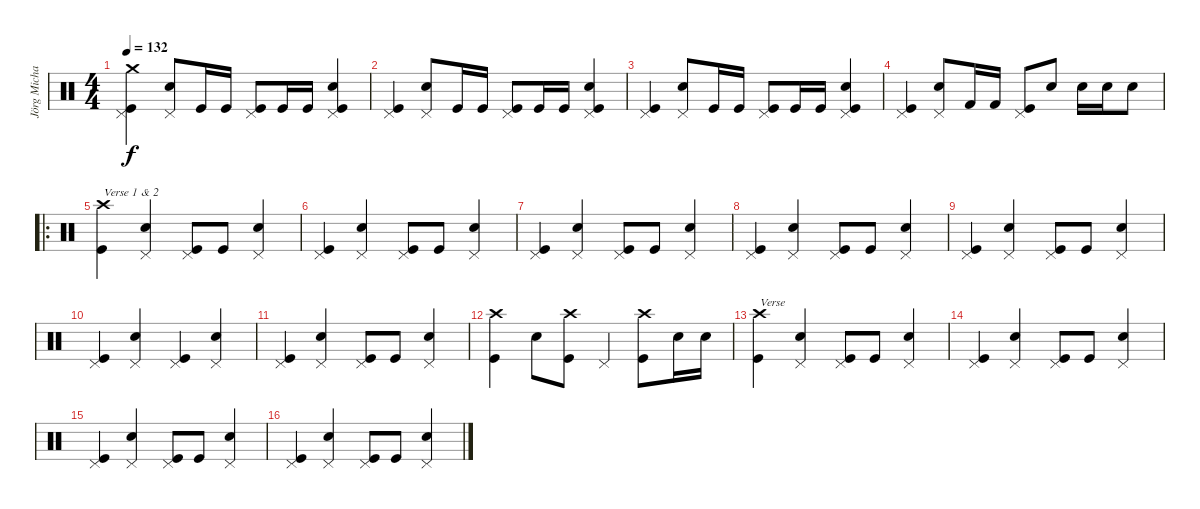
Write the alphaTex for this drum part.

\track ("Jörg Michael (Drums)" "Jörg Micha") {instrument percussion}
\staff {score}
\articulation defaults
\ts (4 4)
\tempo 132
\clef neutral
\ks c
("Pedal Hi-Hat (hit)" "Kick (hit)" "Crash medium (hit)").4{dy f} ("Pedal Hi-Hat (hit)" "Snare (hit) 2").8 "Kick (hit)".16 "Kick (hit)".16 ("Pedal Hi-Hat (hit)" "Kick (hit)").8 "Kick (hit)".16 "Kick (hit)".16 ("Pedal Hi-Hat (hit)" "Kick (hit)" "Snare (hit) 2").4 |
("Pedal Hi-Hat (hit)" "Kick (hit)").4 ("Pedal Hi-Hat (hit)" "Snare (hit) 2").8 "Kick (hit)".16 "Kick (hit)".16 ("Pedal Hi-Hat (hit)" "Kick (hit)").8 "Kick (hit)".16 "Kick (hit)".16 ("Pedal Hi-Hat (hit)" "Kick (hit)" "Snare (hit) 2").4 |
("Pedal Hi-Hat (hit)" "Kick (hit)").4 ("Pedal Hi-Hat (hit)" "Snare (hit) 2").8 "Kick (hit)".16 "Kick (hit)".16 ("Pedal Hi-Hat (hit)" "Kick (hit)").8 "Kick (hit)".16 "Kick (hit)".16 ("Pedal Hi-Hat (hit)" "Kick (hit)" "Snare (hit) 2").4 |
("Pedal Hi-Hat (hit)" "Kick (hit)").4 ("Pedal Hi-Hat (hit)" "Snare (hit) 2").8 "Kick (hit) 2".16 "Kick (hit) 2".16 ("Pedal Hi-Hat (hit)" "Kick (hit)").8 "Snare (hit) 2".8 "Snare (hit) 2".16 "Snare (hit) 2".16 "Snare (hit) 2".8 |
\ro
("Crash high (hit)" "Kick (hit)").4{txt "Verse 1 & 2"} ("Pedal Hi-Hat (hit)" "Snare (hit) 2").4 ("Pedal Hi-Hat (hit)" "Kick (hit)").8 "Kick (hit)".8 ("Pedal Hi-Hat (hit)" "Snare (hit) 2").4 |
("Pedal Hi-Hat (hit)" "Kick (hit)").4 ("Pedal Hi-Hat (hit)" "Snare (hit) 2").4 ("Pedal Hi-Hat (hit)" "Kick (hit)").8 "Kick (hit)".8 ("Pedal Hi-Hat (hit)" "Snare (hit) 2").4 |
("Pedal Hi-Hat (hit)" "Kick (hit)").4 ("Pedal Hi-Hat (hit)" "Snare (hit) 2").4 ("Pedal Hi-Hat (hit)" "Kick (hit)").8 "Kick (hit)".8 ("Pedal Hi-Hat (hit)" "Snare (hit) 2").4 |
("Pedal Hi-Hat (hit)" "Kick (hit)").4 ("Pedal Hi-Hat (hit)" "Snare (hit) 2").4 ("Pedal Hi-Hat (hit)" "Kick (hit)").8 "Kick (hit)".8 ("Pedal Hi-Hat (hit)" "Snare (hit) 2").4 |
("Pedal Hi-Hat (hit)" "Kick (hit)").4 ("Pedal Hi-Hat (hit)" "Snare (hit) 2").4 ("Pedal Hi-Hat (hit)" "Kick (hit)").8 "Kick (hit)".8 ("Pedal Hi-Hat (hit)" "Snare (hit) 2").4 |
("Pedal Hi-Hat (hit)" "Kick (hit)").4 ("Pedal Hi-Hat (hit)" "Snare (hit) 2").4 ("Pedal Hi-Hat (hit)" "Kick (hit)").4 ("Pedal Hi-Hat (hit)" "Snare (hit) 2").4 |
("Pedal Hi-Hat (hit)" "Kick (hit)").4 ("Pedal Hi-Hat (hit)" "Snare (hit) 2").4 ("Pedal Hi-Hat (hit)" "Kick (hit)").8 "Kick (hit)".8 ("Pedal Hi-Hat (hit)" "Snare (hit) 2").4 |
("Crash high (hit)" "Kick (hit)").4 "Snare (hit) 2".8 ("Crash high (hit)" "Kick (hit)").8 "Pedal Hi-Hat (hit)".4 ("Crash high (hit)" "Kick (hit)").8 "Snare (hit) 2".16 "Snare (hit) 2".16 |
("Crash high (hit)" "Kick (hit)").4{txt "Verse"} ("Pedal Hi-Hat (hit)" "Snare (hit) 2").4 ("Pedal Hi-Hat (hit)" "Kick (hit)").8 "Kick (hit)".8 ("Pedal Hi-Hat (hit)" "Snare (hit) 2").4 |
("Pedal Hi-Hat (hit)" "Kick (hit)").4 ("Pedal Hi-Hat (hit)" "Snare (hit) 2").4 ("Pedal Hi-Hat (hit)" "Kick (hit)").8 "Kick (hit)".8 ("Pedal Hi-Hat (hit)" "Snare (hit) 2").4 |
("Pedal Hi-Hat (hit)" "Kick (hit)").4 ("Pedal Hi-Hat (hit)" "Snare (hit) 2").4 ("Pedal Hi-Hat (hit)" "Kick (hit)").8 "Kick (hit)".8 ("Pedal Hi-Hat (hit)" "Snare (hit) 2").4 |
("Pedal Hi-Hat (hit)" "Kick (hit)").4 ("Pedal Hi-Hat (hit)" "Snare (hit) 2").4 ("Pedal Hi-Hat (hit)" "Kick (hit)").8 "Kick (hit)".8 ("Pedal Hi-Hat (hit)" "Snare (hit) 2").4
